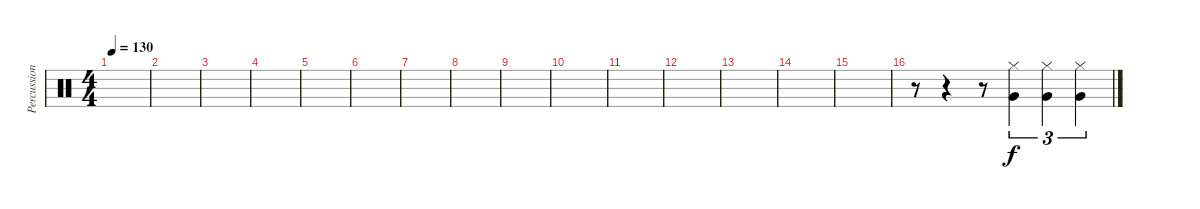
\track ("Percussion" "Percussion") {instrument percussion}
\staff {score}
\articulation defaults
\ts (4 4)
\tempo 130
\clef neutral
\ks c
|
|
|
|
|
|
|
|
|
|
|
|
|
|
|
r.8 r.4 r.8 ("Hi-Hat (closed)" "Very Low Tom (hit)").4{tu (3 2)} ("Hi-Hat (closed)" "Very Low Tom (hit)").4{tu (3 2)} ("Hi-Hat (closed)" "Very Low Tom (hit)").4{tu (3 2)}
